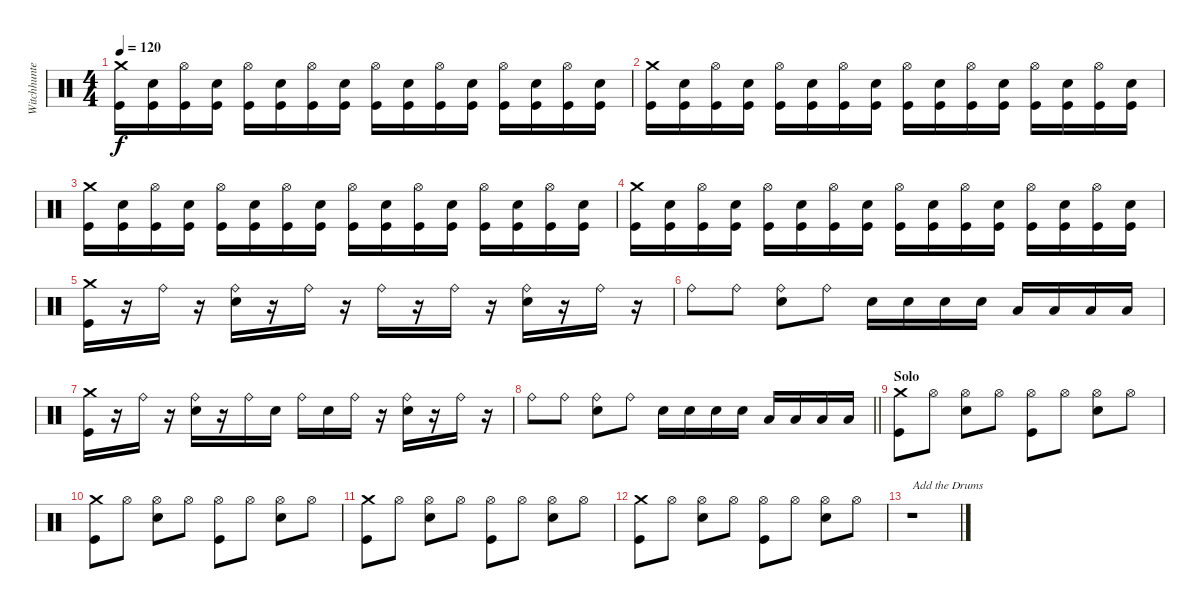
\track ("Witchhunter" "Witchhunte") {instrument percussion}
\staff {score}
\articulation defaults
\ts (4 4)
\tempo 120
\clef neutral
\ks c
("Crash medium (hit)" "Kick (hit)").16{dy f} ("Snare (hit) 2" "Kick (hit)").16 ("Hi-Hat (open)" "Kick (hit)").16 ("Snare (hit) 2" "Kick (hit)").16 ("Hi-Hat (open)" "Kick (hit)").16 ("Snare (hit) 2" "Kick (hit)").16 ("Hi-Hat (open)" "Kick (hit)").16 ("Snare (hit) 2" "Kick (hit)").16 ("Hi-Hat (open)" "Kick (hit)").16 ("Snare (hit) 2" "Kick (hit)").16 ("Hi-Hat (open)" "Kick (hit)").16 ("Snare (hit) 2" "Kick (hit)").16 ("Hi-Hat (open)" "Kick (hit)").16 ("Snare (hit) 2" "Kick (hit)").16 ("Hi-Hat (open)" "Kick (hit)").16 ("Snare (hit) 2" "Kick (hit)").16 |
("Crash medium (hit)" "Kick (hit)").16 ("Snare (hit) 2" "Kick (hit)").16 ("Hi-Hat (open)" "Kick (hit)").16 ("Snare (hit) 2" "Kick (hit)").16 ("Hi-Hat (open)" "Kick (hit)").16 ("Snare (hit) 2" "Kick (hit)").16 ("Hi-Hat (open)" "Kick (hit)").16 ("Snare (hit) 2" "Kick (hit)").16 ("Hi-Hat (open)" "Kick (hit)").16 ("Snare (hit) 2" "Kick (hit)").16 ("Hi-Hat (open)" "Kick (hit)").16 ("Snare (hit) 2" "Kick (hit)").16 ("Hi-Hat (open)" "Kick (hit)").16 ("Snare (hit) 2" "Kick (hit)").16 ("Hi-Hat (open)" "Kick (hit)").16 ("Snare (hit) 2" "Kick (hit)").16 |
("Crash medium (hit)" "Kick (hit)").16 ("Snare (hit) 2" "Kick (hit)").16 ("Hi-Hat (open)" "Kick (hit)").16 ("Snare (hit) 2" "Kick (hit)").16 ("Hi-Hat (open)" "Kick (hit)").16 ("Snare (hit) 2" "Kick (hit)").16 ("Hi-Hat (open)" "Kick (hit)").16 ("Snare (hit) 2" "Kick (hit)").16 ("Hi-Hat (open)" "Kick (hit)").16 ("Snare (hit) 2" "Kick (hit)").16 ("Hi-Hat (open)" "Kick (hit)").16 ("Snare (hit) 2" "Kick (hit)").16 ("Hi-Hat (open)" "Kick (hit)").16 ("Snare (hit) 2" "Kick (hit)").16 ("Hi-Hat (open)" "Kick (hit)").16 ("Snare (hit) 2" "Kick (hit)").16 |
("Crash medium (hit)" "Kick (hit)").16 ("Snare (hit) 2" "Kick (hit)").16 ("Hi-Hat (open)" "Kick (hit)").16 ("Snare (hit) 2" "Kick (hit)").16 ("Hi-Hat (open)" "Kick (hit)").16 ("Snare (hit) 2" "Kick (hit)").16 ("Hi-Hat (open)" "Kick (hit)").16 ("Snare (hit) 2" "Kick (hit)").16 ("Hi-Hat (open)" "Kick (hit)").16 ("Snare (hit) 2" "Kick (hit)").16 ("Hi-Hat (open)" "Kick (hit)").16 ("Snare (hit) 2" "Kick (hit)").16 ("Hi-Hat (open)" "Kick (hit)").16 ("Snare (hit) 2" "Kick (hit)").16 ("Hi-Hat (open)" "Kick (hit)").16 ("Snare (hit) 2" "Kick (hit)").16 |
("Crash medium (hit)" "Kick (hit)").16 r.16 "Ride (bell)".16 r.16 ("Ride (bell)" "Snare (hit) 2").16 r.16 "Ride (bell)".16 r.16 "Ride (bell)".16 r.16 "Ride (bell)".16 r.16 ("Ride (bell)" "Snare (hit) 2").16 r.16 "Ride (bell)".16 r.16 |
"Ride (bell)".8 "Ride (bell)".8 ("Ride (bell)" "Snare (hit) 2").8 "Ride (bell)".8 "Snare (hit) 2".16 "Snare (hit) 2".16 "Snare (hit) 2".16 "Snare (hit) 2".16 "Low Tom (hit)".16 "Low Tom (hit)".16 "Low Tom (hit)".16 "Low Tom (hit)".16 |
("Crash medium (hit)" "Kick (hit)").16 r.16 "Ride (bell)".16 r.16 ("Ride (bell)" "Snare (hit) 2").16 r.16 "Ride (bell)".16 "Snare (hit) 2".16 "Ride (bell)".16 "Snare (hit) 2".16 "Ride (bell)".16 r.16 ("Ride (bell)" "Snare (hit) 2").16 r.16 "Ride (bell)".16 r.16 |
\barLineRight lightlight "Ride (bell)".8 "Ride (bell)".8
("Ride (bell)" "Snare (hit) 2").8 "Ride (bell)".8 "Snare (hit) 2".16 "Snare (hit) 2".16 "Snare (hit) 2".16 "Snare (hit) 2".16 "Low Tom (hit)".16 "Low Tom (hit)".16 "Low Tom (hit)".16 "Low Tom (hit)".16 |
\section ("" "Solo")
("Crash medium (hit)" "Kick (hit)").8 "Hi-Hat (open)".8 ("Hi-Hat (open)" "Snare (hit) 2").8 "Hi-Hat (open)".8 ("Hi-Hat (open)" "Kick (hit)").8 "Hi-Hat (open)".8 ("Hi-Hat (open)" "Snare (hit) 2").8 "Hi-Hat (open)".8 |
("Crash medium (hit)" "Kick (hit)").8 "Hi-Hat (open)".8 ("Hi-Hat (open)" "Snare (hit) 2").8 "Hi-Hat (open)".8 ("Hi-Hat (open)" "Kick (hit)").8 "Hi-Hat (open)".8 ("Hi-Hat (open)" "Snare (hit) 2").8 "Hi-Hat (open)".8 |
("Crash medium (hit)" "Kick (hit)").8 "Hi-Hat (open)".8 ("Hi-Hat (open)" "Snare (hit) 2").8 "Hi-Hat (open)".8 ("Hi-Hat (open)" "Kick (hit)").8 "Hi-Hat (open)".8 ("Hi-Hat (open)" "Snare (hit) 2").8 "Hi-Hat (open)".8 |
("Crash medium (hit)" "Kick (hit)").8 "Hi-Hat (open)".8 ("Hi-Hat (open)" "Snare (hit) 2").8 "Hi-Hat (open)".8 ("Hi-Hat (open)" "Kick (hit)").8 "Hi-Hat (open)".8 ("Hi-Hat (open)" "Snare (hit) 2").8 "Hi-Hat (open)".8 |
r.1{txt "Add the Drums "}
